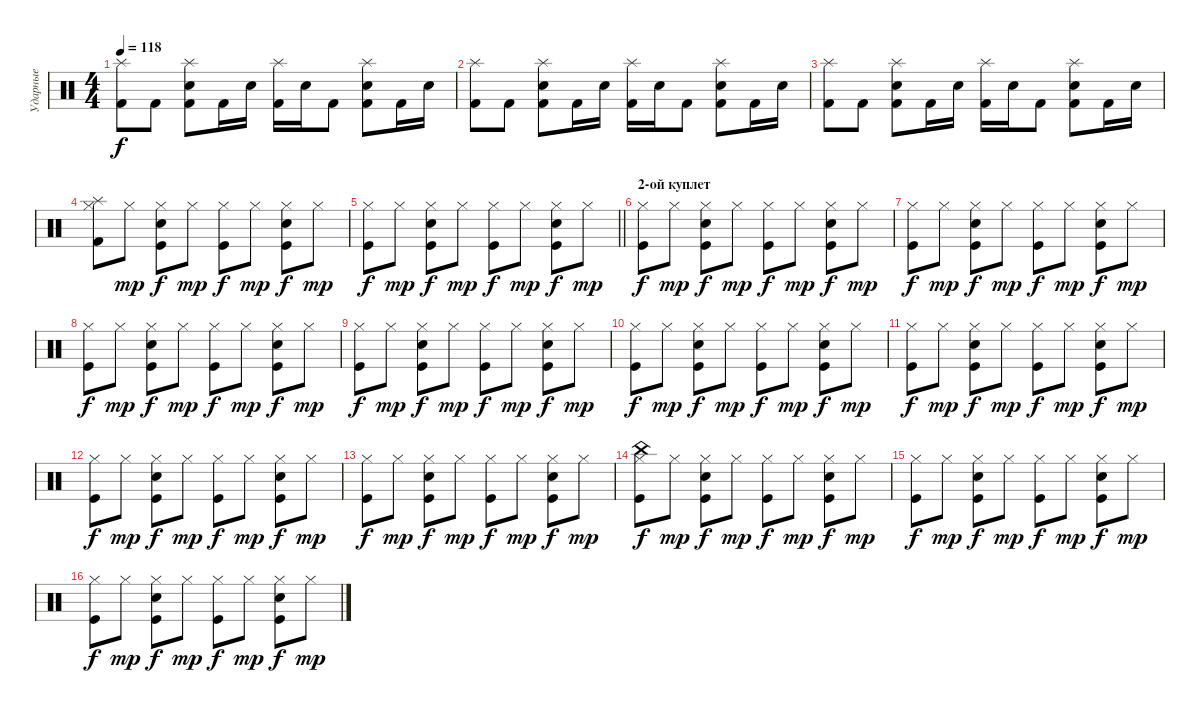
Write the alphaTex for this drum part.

\track ("Ударные" "Ударные") {instrument percussion}
\staff {score}
\articulation defaults
\ts (4 4)
\tempo 118
\clef neutral
\ks c
("Splash (hit)" "Kick (hit) 2").8{dy f} "Kick (hit) 2".8 ("Splash (hit)" "Kick (hit) 2" "Electric Snare (hit)").8 "Kick (hit) 2".16 "Electric Snare (hit)".16 ("Splash (hit)" "Kick (hit) 2").16 "Electric Snare (hit)".16 "Kick (hit) 2".8 ("Splash (hit)" "Kick (hit) 2" "Electric Snare (hit)").8 "Kick (hit) 2".16 "Electric Snare (hit)".16 |
("Splash (hit)" "Kick (hit) 2").8 "Kick (hit) 2".8 ("Splash (hit)" "Kick (hit) 2" "Electric Snare (hit)").8 "Kick (hit) 2".16 "Electric Snare (hit)".16 ("Splash (hit)" "Kick (hit) 2").16 "Electric Snare (hit)".16 "Kick (hit) 2".8 ("Splash (hit)" "Kick (hit) 2" "Electric Snare (hit)").8 "Kick (hit) 2".16 "Electric Snare (hit)".16 |
("Splash (hit)" "Kick (hit) 2").8 "Kick (hit) 2".8 ("Splash (hit)" "Kick (hit) 2" "Electric Snare (hit)").8 "Kick (hit) 2".16 "Electric Snare (hit)".16 ("Splash (hit)" "Kick (hit) 2").16 "Electric Snare (hit)".16 "Kick (hit) 2".8 ("Splash (hit)" "Kick (hit) 2" "Electric Snare (hit)").8 "Kick (hit) 2".16 "Electric Snare (hit)".16 |
("Hi-Hat (closed)" "Splash (hit)" "Kick (hit) 2").8 "Hi-Hat (closed)".8{dy mp} ("Hi-Hat (closed)" "Kick (hit)" "Electric Snare (hit)").8{dy f} "Hi-Hat (closed)".8{dy mp} ("Hi-Hat (closed)" "Kick (hit)").8{dy f} "Hi-Hat (closed)".8{dy mp} ("Hi-Hat (closed)" "Kick (hit)" "Electric Snare (hit)").8{dy f} "Hi-Hat (closed)".8{dy mp} |
\barLineRight lightlight
("Hi-Hat (closed)" "Kick (hit)").8{dy f} "Hi-Hat (closed)".8{dy mp} ("Hi-Hat (closed)" "Kick (hit)" "Electric Snare (hit)").8{dy f} "Hi-Hat (closed)".8{dy mp} ("Hi-Hat (closed)" "Kick (hit)").8{dy f} "Hi-Hat (closed)".8{dy mp} ("Hi-Hat (closed)" "Kick (hit)" "Electric Snare (hit)").8{dy f} "Hi-Hat (closed)".8{dy mp} |
\section ("" "2-ой куплет")
("Hi-Hat (closed)" "Kick (hit)").8{dy f} "Hi-Hat (closed)".8{dy mp} ("Hi-Hat (closed)" "Kick (hit)" "Electric Snare (hit)").8{dy f} "Hi-Hat (closed)".8{dy mp} ("Hi-Hat (closed)" "Kick (hit)").8{dy f} "Hi-Hat (closed)".8{dy mp} ("Hi-Hat (closed)" "Kick (hit)" "Electric Snare (hit)").8{dy f} "Hi-Hat (closed)".8{dy mp} |
("Hi-Hat (closed)" "Kick (hit)").8{dy f} "Hi-Hat (closed)".8{dy mp} ("Hi-Hat (closed)" "Kick (hit)" "Electric Snare (hit)").8{dy f} "Hi-Hat (closed)".8{dy mp} ("Hi-Hat (closed)" "Kick (hit)").8{dy f} "Hi-Hat (closed)".8{dy mp} ("Hi-Hat (closed)" "Kick (hit)" "Electric Snare (hit)").8{dy f} "Hi-Hat (closed)".8{dy mp} |
("Hi-Hat (closed)" "Kick (hit)").8{dy f} "Hi-Hat (closed)".8{dy mp} ("Hi-Hat (closed)" "Kick (hit)" "Electric Snare (hit)").8{dy f} "Hi-Hat (closed)".8{dy mp} ("Hi-Hat (closed)" "Kick (hit)").8{dy f} "Hi-Hat (closed)".8{dy mp} ("Hi-Hat (closed)" "Kick (hit)" "Electric Snare (hit)").8{dy f} "Hi-Hat (closed)".8{dy mp} |
("Hi-Hat (closed)" "Kick (hit)").8{dy f} "Hi-Hat (closed)".8{dy mp} ("Hi-Hat (closed)" "Kick (hit)" "Electric Snare (hit)").8{dy f} "Hi-Hat (closed)".8{dy mp} ("Hi-Hat (closed)" "Kick (hit)").8{dy f} "Hi-Hat (closed)".8{dy mp} ("Hi-Hat (closed)" "Kick (hit)" "Electric Snare (hit)").8{dy f} "Hi-Hat (closed)".8{dy mp} |
("Hi-Hat (closed)" "Kick (hit)").8{dy f} "Hi-Hat (closed)".8{dy mp} ("Hi-Hat (closed)" "Kick (hit)" "Electric Snare (hit)").8{dy f} "Hi-Hat (closed)".8{dy mp} ("Hi-Hat (closed)" "Kick (hit)").8{dy f} "Hi-Hat (closed)".8{dy mp} ("Hi-Hat (closed)" "Kick (hit)" "Electric Snare (hit)").8{dy f} "Hi-Hat (closed)".8{dy mp} |
("Hi-Hat (closed)" "Kick (hit)").8{dy f} "Hi-Hat (closed)".8{dy mp} ("Hi-Hat (closed)" "Kick (hit)" "Electric Snare (hit)").8{dy f} "Hi-Hat (closed)".8{dy mp} ("Hi-Hat (closed)" "Kick (hit)").8{dy f} "Hi-Hat (closed)".8{dy mp} ("Hi-Hat (closed)" "Kick (hit)" "Electric Snare (hit)").8{dy f} "Hi-Hat (closed)".8{dy mp} |
("Hi-Hat (closed)" "Kick (hit)").8{dy f} "Hi-Hat (closed)".8{dy mp} ("Hi-Hat (closed)" "Kick (hit)" "Electric Snare (hit)").8{dy f} "Hi-Hat (closed)".8{dy mp} ("Hi-Hat (closed)" "Kick (hit)").8{dy f} "Hi-Hat (closed)".8{dy mp} ("Hi-Hat (closed)" "Kick (hit)" "Electric Snare (hit)").8{dy f} "Hi-Hat (closed)".8{dy mp} |
("Hi-Hat (closed)" "Kick (hit)").8{dy f} "Hi-Hat (closed)".8{dy mp} ("Hi-Hat (closed)" "Kick (hit)" "Electric Snare (hit)").8{dy f} "Hi-Hat (closed)".8{dy mp} ("Hi-Hat (closed)" "Kick (hit)").8{dy f} "Hi-Hat (closed)".8{dy mp} ("Hi-Hat (closed)" "Kick (hit)" "Electric Snare (hit)").8{dy f} "Hi-Hat (closed)".8{dy mp} |
("Hi-Hat (closed)" "Kick (hit)" "China (hit)").8{dy f} "Hi-Hat (closed)".8{dy mp} ("Hi-Hat (closed)" "Kick (hit)" "Electric Snare (hit)").8{dy f} "Hi-Hat (closed)".8{dy mp} ("Hi-Hat (closed)" "Kick (hit)").8{dy f} "Hi-Hat (closed)".8{dy mp} ("Hi-Hat (closed)" "Kick (hit)" "Electric Snare (hit)").8{dy f} "Hi-Hat (closed)".8{dy mp} |
("Hi-Hat (closed)" "Kick (hit)").8{dy f} "Hi-Hat (closed)".8{dy mp} ("Hi-Hat (closed)" "Kick (hit)" "Electric Snare (hit)").8{dy f} "Hi-Hat (closed)".8{dy mp} ("Hi-Hat (closed)" "Kick (hit)").8{dy f} "Hi-Hat (closed)".8{dy mp} ("Hi-Hat (closed)" "Kick (hit)" "Electric Snare (hit)").8{dy f} "Hi-Hat (closed)".8{dy mp} |
("Hi-Hat (closed)" "Kick (hit)").8{dy f} "Hi-Hat (closed)".8{dy mp} ("Hi-Hat (closed)" "Kick (hit)" "Electric Snare (hit)").8{dy f} "Hi-Hat (closed)".8{dy mp} ("Hi-Hat (closed)" "Kick (hit)").8{dy f} "Hi-Hat (closed)".8{dy mp} ("Hi-Hat (closed)" "Kick (hit)" "Electric Snare (hit)").8{dy f} "Hi-Hat (closed)".8{dy mp}
